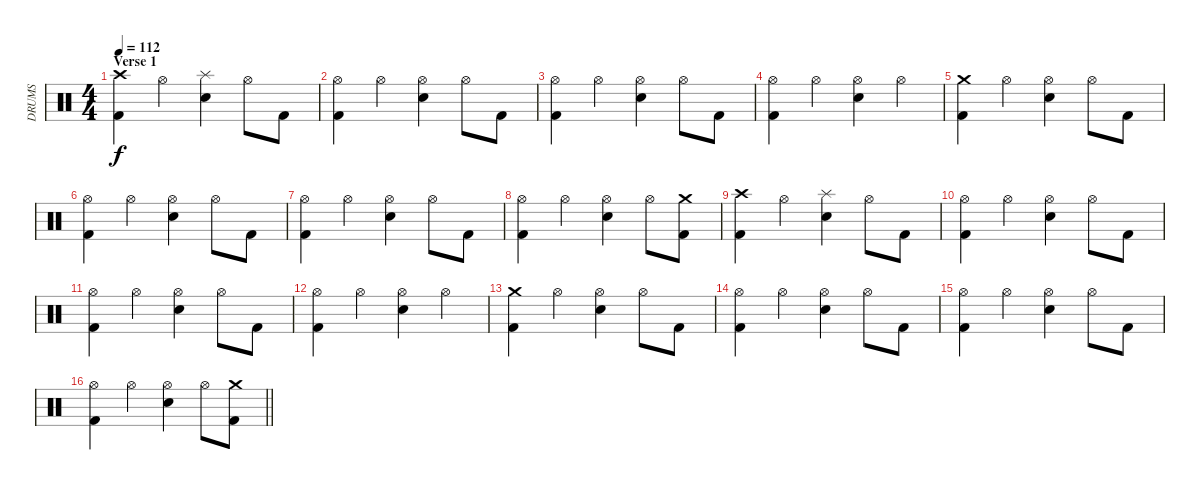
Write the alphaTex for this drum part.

\track ("DRUMS" "DRUMS") {instrument percussion}
\staff {score}
\articulation defaults
\ts (4 4)
\section ("" "Verse 1")
\tempo 112
\clef neutral
\ks c
("Crash high (hit)" "Kick (hit) 2").4{dy f} "Hi-Hat (open)".4 ("Splash (hit)" "Snare (hit) 2").4 "Hi-Hat (open)".8 "Kick (hit) 2".8 |
("Hi-Hat (open)" "Kick (hit) 2").4 "Hi-Hat (open)".4 ("Hi-Hat (open)" "Snare (hit) 2").4 "Hi-Hat (open)".8 "Kick (hit) 2".8 |
("Hi-Hat (open)" "Kick (hit) 2").4 "Hi-Hat (open)".4 ("Hi-Hat (open)" "Snare (hit) 2").4 "Hi-Hat (open)".8 "Kick (hit) 2".8 |
("Hi-Hat (open)" "Kick (hit) 2").4 "Hi-Hat (open)".4 ("Hi-Hat (open)" "Snare (hit) 2").4 "Hi-Hat (open)".4 |
("Crash medium (hit)" "Kick (hit) 2").4 "Hi-Hat (open)".4 ("Hi-Hat (open)" "Snare (hit) 2").4 "Hi-Hat (open)".8 "Kick (hit) 2".8 |
("Hi-Hat (open)" "Kick (hit) 2").4 "Hi-Hat (open)".4 ("Hi-Hat (open)" "Snare (hit) 2").4 "Hi-Hat (open)".8 "Kick (hit) 2".8 |
("Hi-Hat (open)" "Kick (hit) 2").4 "Hi-Hat (open)".4 ("Hi-Hat (open)" "Snare (hit) 2").4 "Hi-Hat (open)".8 "Kick (hit) 2".8 |
("Hi-Hat (open)" "Kick (hit) 2").4 "Hi-Hat (open)".4 ("Hi-Hat (open)" "Snare (hit) 2").4 "Hi-Hat (open)".8 ("Crash medium (hit)" "Kick (hit) 2").8 |
("Crash high (hit)" "Kick (hit) 2").4 "Hi-Hat (open)".4 ("Splash (hit)" "Snare (hit) 2").4 "Hi-Hat (open)".8 "Kick (hit) 2".8 |
("Hi-Hat (open)" "Kick (hit) 2").4 "Hi-Hat (open)".4 ("Hi-Hat (open)" "Snare (hit) 2").4 "Hi-Hat (open)".8 "Kick (hit) 2".8 |
("Hi-Hat (open)" "Kick (hit) 2").4 "Hi-Hat (open)".4 ("Hi-Hat (open)" "Snare (hit) 2").4 "Hi-Hat (open)".8 "Kick (hit) 2".8 |
("Hi-Hat (open)" "Kick (hit) 2").4 "Hi-Hat (open)".4 ("Hi-Hat (open)" "Snare (hit) 2").4 "Hi-Hat (open)".4 |
("Crash medium (hit)" "Kick (hit) 2").4 "Hi-Hat (open)".4 ("Hi-Hat (open)" "Snare (hit) 2").4 "Hi-Hat (open)".8 "Kick (hit) 2".8 |
("Hi-Hat (open)" "Kick (hit) 2").4 "Hi-Hat (open)".4 ("Hi-Hat (open)" "Snare (hit) 2").4 "Hi-Hat (open)".8 "Kick (hit) 2".8 |
("Hi-Hat (open)" "Kick (hit) 2").4 "Hi-Hat (open)".4 ("Hi-Hat (open)" "Snare (hit) 2").4 "Hi-Hat (open)".8 "Kick (hit) 2".8 |
\barLineRight lightlight
("Hi-Hat (open)" "Kick (hit) 2").4 "Hi-Hat (open)".4 ("Hi-Hat (open)" "Snare (hit) 2").4 "Hi-Hat (open)".8 ("Crash medium (hit)" "Kick (hit) 2").8
